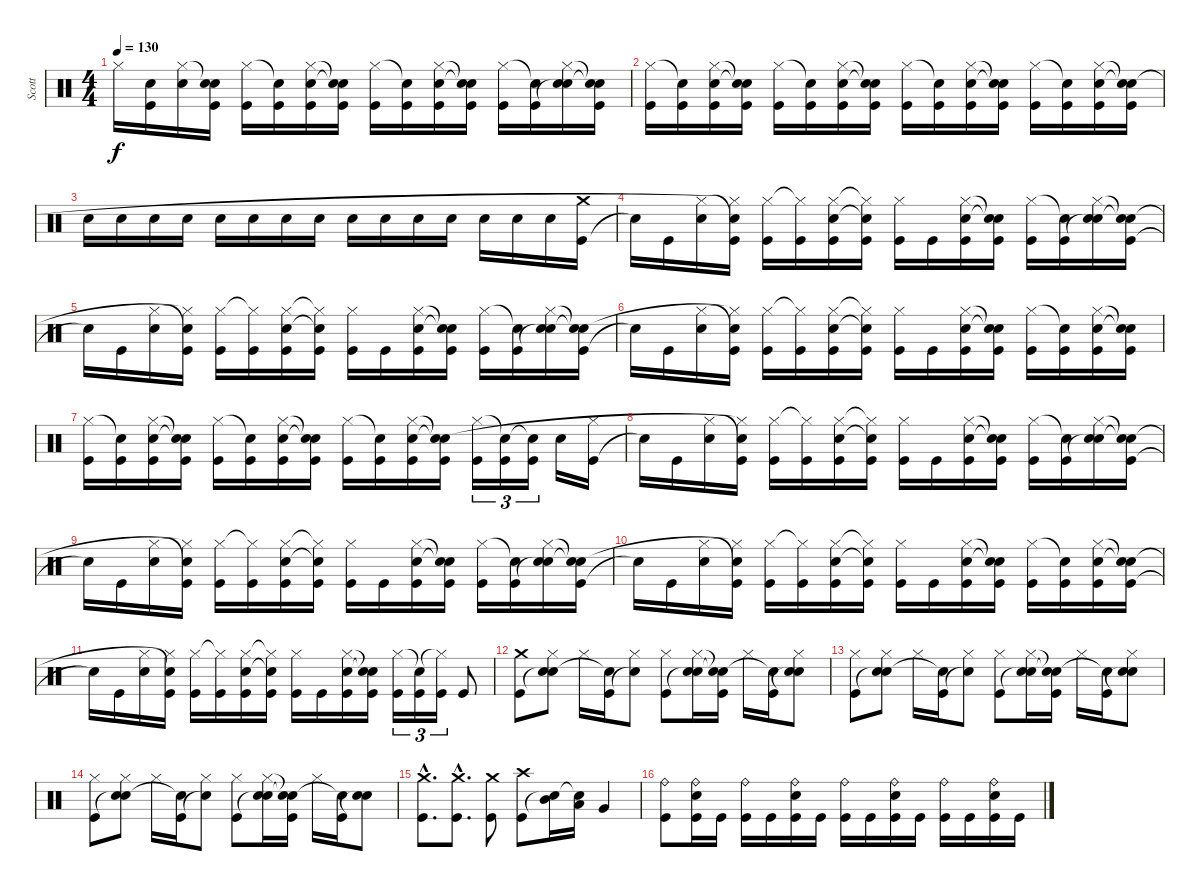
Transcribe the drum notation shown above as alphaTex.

\track ("Scott" "Scott") {instrument percussion}
\staff {score}
\articulation defaults
\ts (4 4)
\tempo 130
\clef neutral
\ks c "Hi-Hat (closed)".16{dy f}
("Kick (hit)" "Snare (hit)"{t}).16 ("Snare (hit) 2" "Hi-Hat (closed)").16 ("Kick (hit)" "Snare (hit)"{t} "Snare (hit)"{t}).16 ("Kick (hit)" "Hi-Hat (closed)").16 ("Kick (hit)" "Snare (hit)"{t}).16 ("Kick (hit)" "Snare (hit) 2" "Hi-Hat (closed)").16 ("Kick (hit)" "Snare (hit)"{t} "Snare (hit)"{t}).16 ("Kick (hit)" "Hi-Hat (closed)").16 ("Kick (hit)" "Snare (hit)"{t}).16 ("Kick (hit)" "Snare (hit) 2" "Hi-Hat (closed)").16 ("Kick (hit)" "Snare (hit)"{t} "Snare (hit)"{t}).16 ("Kick (hit)" "Hi-Hat (closed)").16 ("Kick (hit)" "Snare (hit)"{t}).16 ("Snare (hit)"{t} "Snare (hit) 2" "Hi-Hat (closed)").16 ("Kick (hit)" "Snare (hit)"{t} "Snare (hit)"{t}).16 |
("Kick (hit)" "Hi-Hat (closed)").16 ("Kick (hit)" "Snare (hit)"{t}).16 ("Kick (hit)" "Snare (hit) 2" "Hi-Hat (closed)").16 ("Kick (hit)" "Snare (hit)"{t} "Snare (hit)"{t}).16 ("Kick (hit)" "Hi-Hat (closed)").16 ("Kick (hit)" "Snare (hit)"{t}).16 ("Kick (hit)" "Snare (hit) 2" "Hi-Hat (closed)").16 ("Kick (hit)" "Snare (hit)"{t} "Snare (hit)"{t}).16 ("Kick (hit)" "Hi-Hat (closed)").16 ("Kick (hit)" "Snare (hit)"{t}).16 ("Kick (hit)" "Snare (hit) 2" "Hi-Hat (closed)").16 ("Kick (hit)" "Snare (hit)"{t} "Snare (hit)"{t}).16 ("Kick (hit)" "Hi-Hat (closed)").16 ("Kick (hit)" "Snare (hit)"{t}).16 ("Kick (hit)" "Snare (hit) 2" "Hi-Hat (closed)").16 ("Kick (hit)" "Snare (hit)"{t} "Snare (hit)"{t}).16 |
"Snare (hit) 2".16 "Snare (hit) 2".16 "Snare (hit) 2".16 "Snare (hit) 2".16 "Snare (hit) 2".16 "Snare (hit) 2".16 "Snare (hit) 2".16 "Snare (hit) 2".16 "Snare (hit) 2".16 "Snare (hit) 2".16 "Snare (hit) 2".16 "Snare (hit) 2".16 "Snare (hit) 2".16 "Snare (hit) 2".16 "Snare (hit) 2".16 ("Kick (hit)" "Crash medium (hit)").16 |
"Snare (hit)"{t}.16 "Kick (hit)".16 ("Snare (hit) 2" "Hi-Hat (closed)").16 ("Kick (hit)" "Snare (hit)"{t} "Hi-Hat (closed)"{t}).16 ("Kick (hit)" "Hi-Hat (closed)").16 ("Kick (hit)" "Hi-Hat (closed)"{t}).16 ("Kick (hit)" "Snare (hit) 2" "Hi-Hat (closed)").16 ("Kick (hit)" "Snare (hit)"{t} "Hi-Hat (closed)"{t}).16 ("Kick (hit)" "Hi-Hat (closed)").16 "Kick (hit)".16 ("Kick (hit)" "Snare (hit) 2" "Hi-Hat (closed)").16 ("Kick (hit)" "Snare (hit)"{t} "Snare (hit)"{t}).16 ("Kick (hit)" "Hi-Hat (closed)").16 ("Kick (hit)" "Snare (hit)"{t}).16 ("Snare (hit)"{t} "Snare (hit) 2" "Hi-Hat (closed)").16 ("Kick (hit)" "Snare (hit)"{t} "Snare (hit)"{t}).16 |
"Snare (hit)"{t}.16 "Kick (hit)".16 ("Snare (hit) 2" "Hi-Hat (closed)").16 ("Kick (hit)" "Snare (hit)"{t} "Hi-Hat (closed)"{t}).16 ("Kick (hit)" "Hi-Hat (closed)").16 ("Kick (hit)" "Hi-Hat (closed)"{t}).16 ("Kick (hit)" "Snare (hit) 2" "Hi-Hat (closed)").16 ("Kick (hit)" "Snare (hit)"{t} "Hi-Hat (closed)"{t}).16 ("Kick (hit)" "Hi-Hat (closed)").16 "Kick (hit)".16 ("Kick (hit)" "Snare (hit) 2" "Hi-Hat (closed)").16 ("Kick (hit)" "Snare (hit)"{t} "Snare (hit)"{t}).16 ("Kick (hit)" "Hi-Hat (closed)").16 ("Kick (hit)" "Snare (hit)"{t}).16 ("Snare (hit)"{t} "Snare (hit) 2" "Hi-Hat (closed)").16 ("Kick (hit)" "Snare (hit)"{t} "Snare (hit)"{t}).16 |
"Snare (hit)"{t}.16 "Kick (hit)".16 ("Snare (hit) 2" "Hi-Hat (closed)").16 ("Kick (hit)" "Snare (hit)"{t} "Hi-Hat (closed)"{t}).16 ("Kick (hit)" "Hi-Hat (closed)").16 ("Kick (hit)" "Hi-Hat (closed)"{t}).16 ("Kick (hit)" "Snare (hit) 2" "Hi-Hat (closed)").16 ("Kick (hit)" "Snare (hit)"{t} "Hi-Hat (closed)"{t}).16 ("Kick (hit)" "Hi-Hat (closed)").16 "Kick (hit)".16 ("Kick (hit)" "Snare (hit) 2" "Hi-Hat (closed)").16 ("Kick (hit)" "Snare (hit)"{t} "Snare (hit)"{t}).16 ("Kick (hit)" "Hi-Hat (closed)").16 ("Kick (hit)" "Snare (hit)"{t}).16 ("Kick (hit)" "Snare (hit) 2" "Hi-Hat (closed)").16 ("Kick (hit)" "Snare (hit)"{t} "Snare (hit)"{t}).16 |
("Kick (hit)" "Hi-Hat (closed)").16 ("Kick (hit)" "Snare (hit)"{t}).16 ("Kick (hit)" "Snare (hit) 2" "Hi-Hat (closed)").16 ("Kick (hit)" "Snare (hit)"{t} "Snare (hit)"{t}).16 ("Kick (hit)" "Hi-Hat (closed)").16 ("Kick (hit)" "Snare (hit)"{t}).16 ("Kick (hit)" "Snare (hit) 2" "Hi-Hat (closed)").16 ("Kick (hit)" "Snare (hit)"{t} "Snare (hit)"{t}).16 ("Kick (hit)" "Hi-Hat (closed)").16 ("Kick (hit)" "Snare (hit)"{t}).16 ("Kick (hit)" "Snare (hit) 2" "Hi-Hat (closed)").16 ("Kick (hit)" "Snare (hit)"{t} "Snare (hit)"{t}).16 ("Kick (hit)" "Hi-Hat (closed)").16{tu (3 2)} ("Kick (hit)" "Snare (hit)"{t}).16{tu (3 2)} ("Kick (hit)" "Snare (hit)"{t}).16{tu (3 2)} "Snare (hit) 2".16 ("Kick (hit)" "Hi-Hat (closed)").16 |
"Snare (hit)"{t}.16 "Kick (hit)".16 ("Snare (hit) 2" "Hi-Hat (closed)").16 ("Kick (hit)" "Snare (hit)"{t} "Hi-Hat (closed)"{t}).16 ("Kick (hit)" "Hi-Hat (closed)").16 ("Kick (hit)" "Hi-Hat (closed)"{t}).16 ("Kick (hit)" "Snare (hit) 2" "Hi-Hat (closed)").16 ("Kick (hit)" "Snare (hit)"{t} "Hi-Hat (closed)"{t}).16 ("Kick (hit)" "Hi-Hat (closed)").16 "Kick (hit)".16 ("Kick (hit)" "Snare (hit) 2" "Hi-Hat (closed)").16 ("Kick (hit)" "Snare (hit)"{t} "Snare (hit)"{t}).16 ("Kick (hit)" "Hi-Hat (closed)").16 ("Kick (hit)" "Snare (hit)"{t}).16 ("Snare (hit)"{t} "Snare (hit) 2" "Hi-Hat (closed)").16 ("Kick (hit)" "Snare (hit)"{t} "Snare (hit)"{t}).16 |
"Snare (hit)"{t}.16 "Kick (hit)".16 ("Snare (hit) 2" "Hi-Hat (closed)").16 ("Kick (hit)" "Snare (hit)"{t} "Hi-Hat (closed)"{t}).16 ("Kick (hit)" "Hi-Hat (closed)").16 ("Kick (hit)" "Hi-Hat (closed)"{t}).16 ("Kick (hit)" "Snare (hit) 2" "Hi-Hat (closed)").16 ("Kick (hit)" "Snare (hit)"{t} "Hi-Hat (closed)"{t}).16 ("Kick (hit)" "Hi-Hat (closed)").16 "Kick (hit)".16 ("Kick (hit)" "Snare (hit) 2" "Hi-Hat (closed)").16 ("Kick (hit)" "Snare (hit)"{t} "Snare (hit)"{t}).16 ("Kick (hit)" "Hi-Hat (closed)").16 ("Kick (hit)" "Snare (hit)"{t}).16 ("Snare (hit)"{t} "Snare (hit) 2" "Hi-Hat (closed)").16 ("Kick (hit)" "Snare (hit)"{t} "Snare (hit)"{t}).16 |
"Snare (hit)"{t}.16 "Kick (hit)".16 ("Snare (hit) 2" "Hi-Hat (closed)").16 ("Kick (hit)" "Snare (hit)"{t} "Hi-Hat (closed)"{t}).16 ("Kick (hit)" "Hi-Hat (closed)").16 ("Kick (hit)" "Hi-Hat (closed)"{t}).16 ("Kick (hit)" "Snare (hit) 2" "Hi-Hat (closed)").16 ("Kick (hit)" "Snare (hit)"{t} "Hi-Hat (closed)"{t}).16 ("Kick (hit)" "Hi-Hat (closed)").16 "Kick (hit)".16 ("Kick (hit)" "Snare (hit) 2" "Hi-Hat (closed)").16 ("Kick (hit)" "Snare (hit)"{t} "Snare (hit)"{t}).16 ("Kick (hit)" "Hi-Hat (closed)").16 ("Kick (hit)" "Snare (hit)"{t}).16 ("Kick (hit)" "Snare (hit) 2" "Hi-Hat (closed)").16 ("Kick (hit)" "Snare (hit)"{t} "Snare (hit)"{t}).16 |
"Snare (hit)"{t}.16 "Kick (hit)".16 ("Snare (hit) 2" "Hi-Hat (closed)").16 ("Kick (hit)" "Snare (hit)"{t} "Hi-Hat (closed)"{t}).16 ("Kick (hit)" "Hi-Hat (closed)").16 ("Kick (hit)" "Hi-Hat (closed)"{t}).16 ("Kick (hit)" "Snare (hit) 2" "Hi-Hat (closed)").16 ("Kick (hit)" "Snare (hit)"{t} "Hi-Hat (closed)"{t}).16 ("Kick (hit)" "Hi-Hat (closed)").16 "Kick (hit)".16 ("Kick (hit)" "Snare (hit) 2" "Hi-Hat (closed)").16 ("Kick (hit)" "Snare (hit)"{t} "Snare (hit)"{t}).16 ("Kick (hit)" "Hi-Hat (closed)").16{tu (3 2)} ("Kick (hit)" "Snare (hit)"{t}).16{tu (3 2)} ("Kick (hit)" "Hi-Hat (closed)"{t}).16{tu (3 2)} "Kick (hit)".8 |
("Kick (hit)" "Crash medium (hit)").8 ("Snare (hit)"{t} "Snare (hit) 2" "Hi-Hat (closed)").8 "Hi-Hat (closed)".16 ("Kick (hit)" "Snare (hit)"{t}).16 ("Snare (hit)"{t} "Hi-Hat (closed)").8 ("Kick (hit)" "Hi-Hat (closed)").8 ("Snare (hit)"{t} "Snare (hit) 2" "Hi-Hat (closed)").16 ("Kick (hit)" "Snare (hit)"{t} "Snare (hit)"{t}).16 "Hi-Hat (closed)".16 ("Kick (hit)" "Snare (hit)"{t}).16 ("Snare (hit)"{t} "Snare (hit) 2" "Hi-Hat (closed)").8 |
("Kick (hit)" "Hi-Hat (closed)").8 ("Snare (hit)"{t} "Snare (hit) 2" "Hi-Hat (closed)").8 "Hi-Hat (closed)".16 ("Kick (hit)" "Snare (hit)"{t}).16 ("Snare (hit)"{t} "Hi-Hat (closed)").8 ("Kick (hit)" "Hi-Hat (closed)").8 ("Snare (hit)"{t} "Snare (hit) 2" "Hi-Hat (closed)").16 ("Kick (hit)" "Snare (hit)"{t} "Snare (hit)"{t}).16 "Hi-Hat (closed)".16 ("Kick (hit)" "Snare (hit)"{t}).16 ("Snare (hit)"{t} "Snare (hit) 2" "Hi-Hat (closed)").8 |
("Kick (hit)" "Hi-Hat (closed)").8 ("Snare (hit)"{t} "Snare (hit) 2" "Hi-Hat (closed)").8 "Hi-Hat (closed)".16 ("Kick (hit)" "Snare (hit)"{t}).16 ("Snare (hit)"{t} "Hi-Hat (closed)").8 ("Kick (hit)" "Hi-Hat (closed)").8 ("Snare (hit)"{t} "Snare (hit) 2" "Hi-Hat (closed)").16 ("Kick (hit)" "Snare (hit)"{t} "Snare (hit)"{t}).16 "Hi-Hat (closed)".16 ("Kick (hit)" "Snare (hit)"{t}).16 ("Snare (hit)"{t} "Snare (hit) 2").8 |
("Kick (hit)"{hac} "Crash medium (hit)"{hac}).8{d} ("Kick (hit)"{hac} "Crash medium (hit)"{hac}).8{d} ("Kick (hit)" "Crash medium (hit)").8 ("Kick (hit)" "Crash high (hit)").8 ("Snare (hit)"{t} "Mid Tom (hit)").16 ("Snare (hit)"{t} "Low Tom (hit)").16 "Very Low Tom (hit)".4 |
("Kick (hit)" "Ride (bell)").8 ("Kick (hit)" "Snare (hit) 2" "Ride (bell)").16 "Kick (hit)".16 ("Kick (hit)" "Ride (bell)").16 "Kick (hit)".16 ("Kick (hit)" "Snare (hit) 2" "Ride (bell)").16 "Kick (hit)".16 ("Kick (hit)" "Ride (bell)").16 "Kick (hit)".16 ("Kick (hit)" "Snare (hit) 2" "Ride (bell)").16 "Kick (hit)".16 ("Kick (hit)" "Ride (bell)").16 "Kick (hit)".16 ("Kick (hit)" "Snare (hit) 2" "Ride (bell)").16 "Kick (hit)".16
